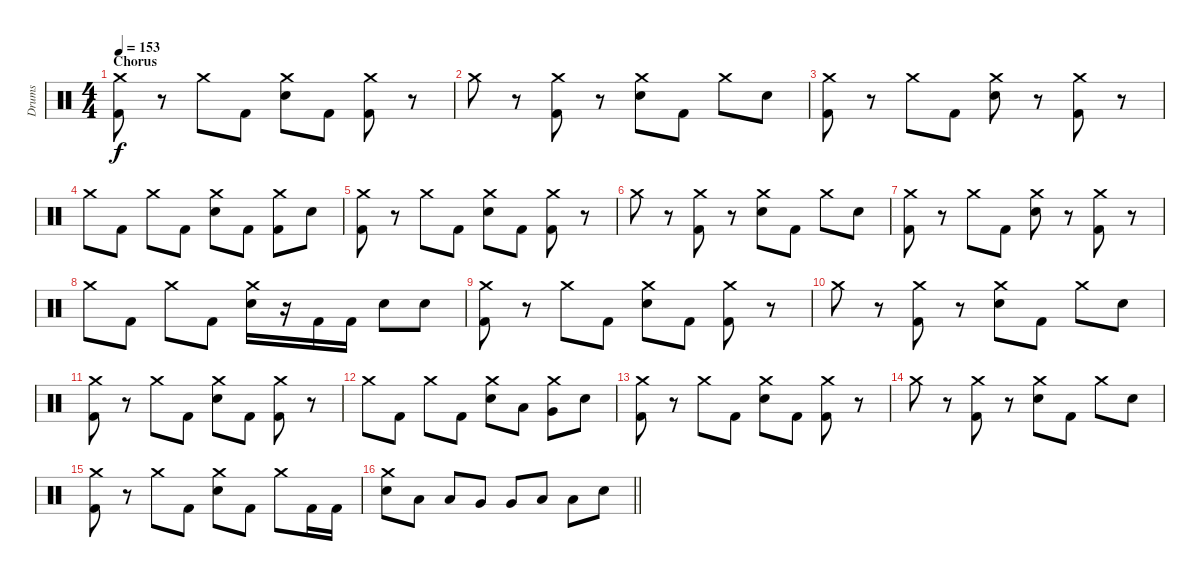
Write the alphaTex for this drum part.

\track ("Drums" "Drums") {instrument percussion}
\staff {score}
\articulation defaults
\ts (4 4)
\section ("" "Chorus")
\tempo 153
\clef neutral
\ks c
("Crash medium (hit)" "Kick (hit) 2").8{dy f} r.8 "Crash medium (hit)".8 "Kick (hit) 2".8 ("Crash medium (hit)" "Electric Snare (hit)").8 "Kick (hit) 2".8 ("Crash medium (hit)" "Kick (hit) 2").8 r.8 |
"Crash medium (hit)".8 r.8 ("Crash medium (hit)" "Kick (hit) 2").8 r.8 ("Crash medium (hit)" "Electric Snare (hit)").8 "Kick (hit) 2".8 "Crash medium (hit)".8 "Electric Snare (hit)".8 |
("Crash medium (hit)" "Kick (hit) 2").8 r.8 "Crash medium (hit)".8 "Kick (hit) 2".8 ("Crash medium (hit)" "Electric Snare (hit)").8 r.8 ("Crash medium (hit)" "Kick (hit) 2").8 r.8 |
"Crash medium (hit)".8 "Kick (hit) 2".8 "Crash medium (hit)".8 "Kick (hit) 2".8 ("Crash medium (hit)" "Electric Snare (hit)").8 "Kick (hit) 2".8 ("Crash medium (hit)" "Kick (hit) 2").8 "Electric Snare (hit)".8 |
("Crash medium (hit)" "Kick (hit) 2").8 r.8 "Crash medium (hit)".8 "Kick (hit) 2".8 ("Crash medium (hit)" "Electric Snare (hit)").8 "Kick (hit) 2".8 ("Crash medium (hit)" "Kick (hit) 2").8 r.8 |
"Crash medium (hit)".8 r.8 ("Crash medium (hit)" "Kick (hit) 2").8 r.8 ("Crash medium (hit)" "Electric Snare (hit)").8 "Kick (hit) 2".8 "Crash medium (hit)".8 "Electric Snare (hit)".8 |
("Crash medium (hit)" "Kick (hit) 2").8 r.8 "Crash medium (hit)".8 "Kick (hit) 2".8 ("Crash medium (hit)" "Electric Snare (hit)").8 r.8 ("Crash medium (hit)" "Kick (hit) 2").8 r.8 |
"Crash medium (hit)".8 "Kick (hit) 2".8 "Crash medium (hit)".8 "Kick (hit) 2".8 ("Crash medium (hit)" "Electric Snare (hit)").16 r.16 "Kick (hit) 2".16 "Kick (hit) 2".16 "Electric Snare (hit)".8 "Electric Snare (hit)".8 |
("Crash medium (hit)" "Kick (hit) 2").8 r.8 "Crash medium (hit)".8 "Kick (hit) 2".8 ("Crash medium (hit)" "Electric Snare (hit)").8 "Kick (hit) 2".8 ("Crash medium (hit)" "Kick (hit) 2").8 r.8 |
"Crash medium (hit)".8 r.8 ("Crash medium (hit)" "Kick (hit) 2").8 r.8 ("Crash medium (hit)" "Electric Snare (hit)").8 "Kick (hit) 2".8 "Crash medium (hit)".8 "Electric Snare (hit)".8 |
("Crash medium (hit)" "Kick (hit) 2").8 r.8 "Crash medium (hit)".8 "Kick (hit) 2".8 ("Crash medium (hit)" "Electric Snare (hit)").8 "Kick (hit) 2".8 ("Crash medium (hit)" "Kick (hit) 2").8 r.8 |
"Crash medium (hit)".8 "Kick (hit) 2".8 "Crash medium (hit)".8 "Kick (hit) 2".8 ("Crash medium (hit)" "Electric Snare (hit)").8 "Low Tom (hit)".8 ("Crash medium (hit)" "Very Low Tom (hit)").8 "Electric Snare (hit)".8 |
("Crash medium (hit)" "Kick (hit) 2").8 r.8 "Crash medium (hit)".8 "Kick (hit) 2".8 ("Crash medium (hit)" "Electric Snare (hit)").8 "Kick (hit) 2".8 ("Crash medium (hit)" "Kick (hit) 2").8 r.8 |
"Crash medium (hit)".8 r.8 ("Crash medium (hit)" "Kick (hit) 2").8 r.8 ("Crash medium (hit)" "Electric Snare (hit)").8 "Kick (hit) 2".8 "Crash medium (hit)".8 "Electric Snare (hit)".8 |
("Crash medium (hit)" "Kick (hit) 2").8 r.8 "Crash medium (hit)".8 "Kick (hit) 2".8 ("Crash medium (hit)" "Electric Snare (hit)").8 "Kick (hit) 2".8 "Crash medium (hit)".8 "Kick (hit) 2".16 "Kick (hit) 2".16 |
\barLineRight lightlight
("Crash medium (hit)" "Electric Snare (hit)").8 "Low Tom (hit)".8 "Low Tom (hit)".8 "Very Low Tom (hit)".8 "Very Low Tom (hit)".8 "Low Floor Tom (hit)".8 "Low Floor Tom (hit)".8 "Electric Snare (hit)".8
